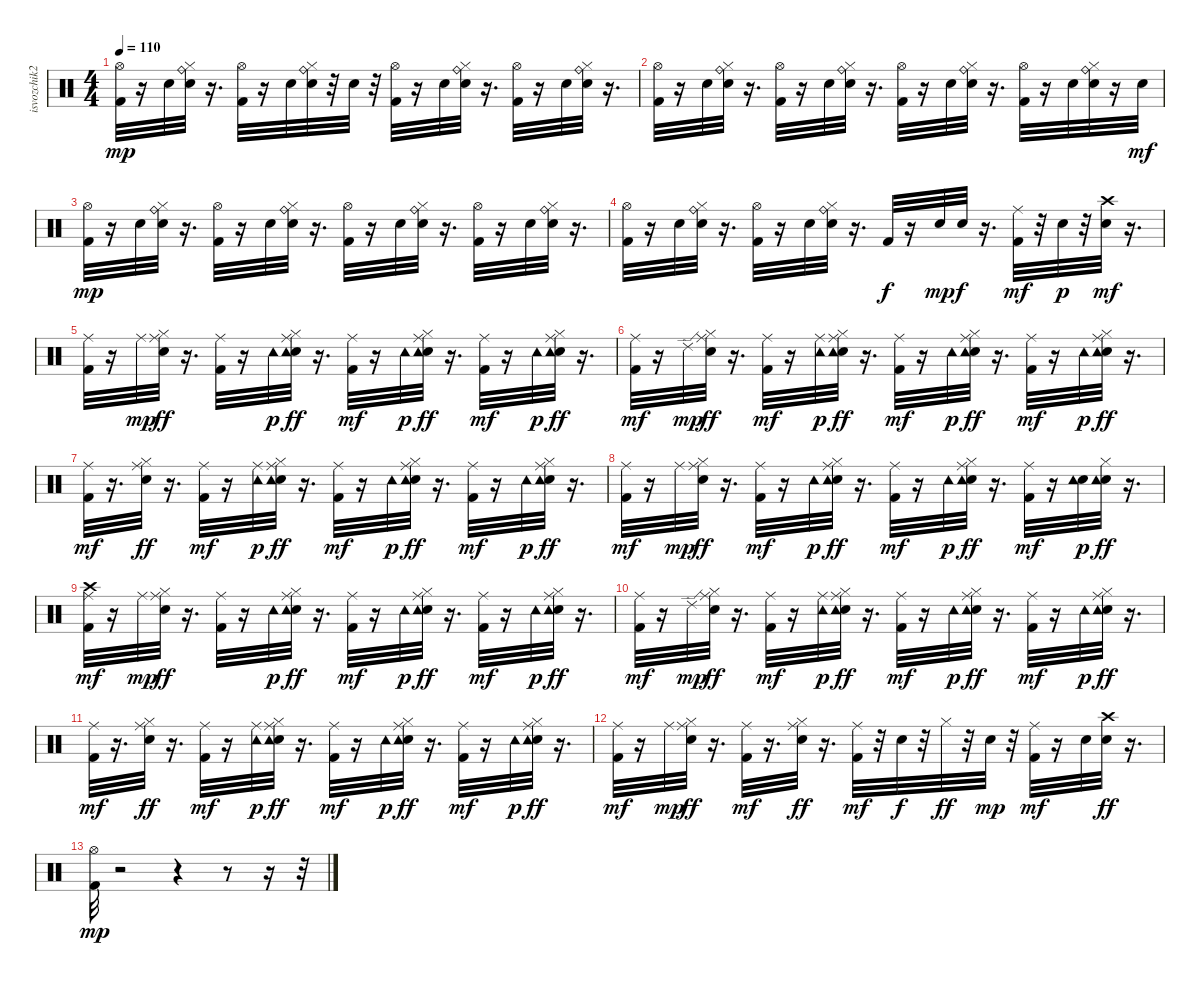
\track ("isvozchik2" "isvozchik2") {instrument percussion}
\staff {score}
\articulation defaults
\ts (4 4)
\tempo 110
\clef neutral
\ks c
("Kick (hit) 2" "Hi-Hat (open)").32{dy mp} r.16 "Snare (hit) 2".32 ("Hand Clap (hit)" "Hi-Hat (closed)" "Ride (bell)").32 r.16{d} ("Kick (hit) 2" "Hi-Hat (open)").32 r.16 "Snare (hit) 2".32 ("Hand Clap (hit)" "Hi-Hat (closed)" "Ride (bell)").32 r.32 "Snare (hit) 2".32 r.32 ("Kick (hit) 2" "Hi-Hat (open)").32 r.16 "Snare (hit) 2".32 ("Hand Clap (hit)" "Hi-Hat (closed)" "Ride (bell)").32 r.16{d} ("Kick (hit) 2" "Hi-Hat (open)").32 r.16 "Snare (hit) 2".32 ("Hand Clap (hit)" "Hi-Hat (closed)" "Ride (bell)").32 r.16{d} |
("Kick (hit) 2" "Hi-Hat (open)").32 r.16 "Snare (hit) 2".32 ("Hand Clap (hit)" "Hi-Hat (closed)" "Ride (bell)").32 r.16{d} ("Kick (hit) 2" "Hi-Hat (open)").32 r.16 "Snare (hit) 2".32 ("Hand Clap (hit)" "Hi-Hat (closed)" "Ride (bell)").32 r.16{d} ("Kick (hit) 2" "Hi-Hat (open)").32 r.16 "Snare (hit) 2".32 ("Hand Clap (hit)" "Hi-Hat (closed)" "Ride (bell)").32 r.16{d} ("Kick (hit) 2" "Hi-Hat (open)").32 r.16 "Snare (hit) 2".32 ("Hand Clap (hit)" "Hi-Hat (closed)" "Ride (bell)").32 r.16 "Hand Clap (hit)".32{dy mf} |
("Kick (hit) 2" "Hi-Hat (open)").32{dy mp} r.16 "Snare (hit) 2".32 ("Hand Clap (hit)" "Hi-Hat (closed)" "Ride (bell)").32 r.16{d} ("Kick (hit) 2" "Hi-Hat (open)").32 r.16 "Snare (hit) 2".32 ("Hand Clap (hit)" "Hi-Hat (closed)" "Ride (bell)").32 r.16{d} ("Kick (hit) 2" "Hi-Hat (open)").32 r.16 "Snare (hit) 2".32 ("Hand Clap (hit)" "Hi-Hat (closed)" "Ride (bell)").32 r.16{d} ("Kick (hit) 2" "Hi-Hat (open)").32 r.16 "Snare (hit) 2".32 ("Hand Clap (hit)" "Hi-Hat (closed)" "Ride (bell)").32 r.16{d} |
("Kick (hit) 2" "Hi-Hat (open)").32 r.16 "Snare (hit) 2".32 ("Hand Clap (hit)" "Hi-Hat (closed)" "Ride (bell)").32 r.16{d} ("Kick (hit) 2" "Hi-Hat (open)").32 r.16 "Snare (hit) 2".32 ("Hand Clap (hit)" "Hi-Hat (closed)" "Ride (bell)").32 r.16{d} "Kick (hit) 2".32{dy f} r.16 "Snare (hit) 2".32{dy mp} "Snare (hit) 2".32{dy f} r.16{d} ("Kick (hit) 2" "Ride (middle)").32{dy mf} r.32 "Snare (hit) 2".32{dy p} r.32 ("Snare (hit) 2" "Crash high (hit)").32{dy mf} r.16{d} |
("Kick (hit) 2" "Ride (middle)").32 r.16 "Ride (middle)".32{dy mp} ("Ride (middle)" "Snare (hit) 2" "Hi-Hat (closed)").32{dy ff} r.16{d} ("Kick (hit) 2" "Ride (middle)").32 r.16 "Tambourine (hit)".32{dy p} ("Ride (middle)" "Snare (hit) 2" "Tambourine (hit)" "Hi-Hat (closed)").32{dy ff} r.16{d} ("Kick (hit) 2" "Ride (middle)").32{dy mf} r.16 "Tambourine (hit)".32{dy p} ("Ride (middle)" "Snare (hit) 2" "Tambourine (hit)" "Hi-Hat (closed)").32{dy ff} r.16{d} ("Kick (hit) 2" "Ride (middle)").32{dy mf} r.16 "Tambourine (hit)".32{dy p} ("Ride (middle)" "Snare (hit) 2" "Tambourine (hit)" "Hi-Hat (closed)").32{dy ff} r.16{d} |
("Kick (hit) 2" "Ride (middle)").32{dy mf} r.16 "Ride (edge) 2".32{dy mp} ("Ride (middle)" "Snare (hit) 2" "Hi-Hat (closed)").32{dy ff} r.16{d} ("Kick (hit) 2" "Ride (middle)").32{dy mf} r.16 ("Ride (middle)" "Tambourine (hit)").32{dy p} ("Ride (middle)" "Snare (hit) 2" "Tambourine (hit)" "Hi-Hat (closed)").32{dy ff} r.16{d} ("Kick (hit) 2" "Ride (middle)").32{dy mf} r.16 "Tambourine (hit)".32{dy p} ("Ride (middle)" "Snare (hit) 2" "Tambourine (hit)" "Hi-Hat (closed)").32{dy ff} r.16{d} ("Kick (hit) 2" "Ride (middle)").32{dy mf} r.16 "Tambourine (hit)".32{dy p} ("Ride (middle)" "Snare (hit) 2" "Tambourine (hit)" "Hi-Hat (closed)").32{dy ff} r.16{d} |
("Kick (hit) 2" "Ride (middle)").32{dy mf} r.16{d} ("Ride (middle)" "Snare (hit) 2" "Hi-Hat (closed)").32{dy ff} r.16{d} ("Kick (hit) 2" "Ride (middle)").32{dy mf} r.16 ("Ride (middle)" "Tambourine (hit)").32{dy p} ("Ride (middle)" "Snare (hit) 2" "Tambourine (hit)" "Hi-Hat (closed)").32{dy ff} r.16{d} ("Kick (hit) 2" "Ride (middle)").32{dy mf} r.16 "Tambourine (hit)".32{dy p} ("Ride (middle)" "Snare (hit) 2" "Tambourine (hit)" "Hi-Hat (closed)").32{dy ff} r.16{d} ("Kick (hit) 2" "Ride (middle)").32{dy mf} r.16 "Tambourine (hit)".32{dy p} ("Ride (middle)" "Snare (hit) 2" "Tambourine (hit)" "Hi-Hat (closed)").32{dy ff} r.16{d} |
("Kick (hit) 2" "Ride (middle)").32{dy mf} r.16 "Ride (middle)".32{dy mp} ("Ride (middle)" "Snare (hit) 2" "Hi-Hat (closed)").32{dy ff} r.16{d} ("Kick (hit) 2" "Ride (middle)").32{dy mf} r.16 "Tambourine (hit)".32{dy p} ("Ride (middle)" "Snare (hit) 2" "Tambourine (hit)" "Hi-Hat (closed)").32{dy ff} r.16{d} ("Kick (hit) 2" "Ride (middle)").32{dy mf} r.16 "Tambourine (hit)".32{dy p} ("Ride (middle)" "Snare (hit) 2" "Tambourine (hit)" "Hi-Hat (closed)").32{dy ff} r.16{d} ("Kick (hit) 2" "Ride (middle)").32{dy mf} r.16 ("Snare (hit) 2" "Tambourine (hit)").32{dy p} ("Snare (hit) 2" "Tambourine (hit)" "Hi-Hat (closed)").32{dy ff} r.16{d} |
("Crash high (hit)" "Kick (hit) 2" "Ride (middle)").32{dy mf} r.16 "Ride (middle)".32{dy mp} ("Ride (middle)" "Snare (hit) 2" "Hi-Hat (closed)").32{dy ff} r.16{d} ("Kick (hit) 2" "Ride (middle)").32 r.16 "Tambourine (hit)".32{dy p} ("Ride (middle)" "Snare (hit) 2" "Tambourine (hit)" "Hi-Hat (closed)").32{dy ff} r.16{d} ("Kick (hit) 2" "Ride (middle)").32{dy mf} r.16 "Tambourine (hit)".32{dy p} ("Ride (middle)" "Snare (hit) 2" "Tambourine (hit)" "Hi-Hat (closed)").32{dy ff} r.16{d} ("Kick (hit) 2" "Ride (middle)").32{dy mf} r.16 "Tambourine (hit)".32{dy p} ("Ride (middle)" "Snare (hit) 2" "Tambourine (hit)" "Hi-Hat (closed)").32{dy ff} r.16{d} |
("Kick (hit) 2" "Ride (middle)").32{dy mf} r.16 "Ride (edge) 2".32{dy mp} ("Ride (middle)" "Snare (hit) 2" "Hi-Hat (closed)").32{dy ff} r.16{d} ("Kick (hit) 2" "Ride (middle)").32{dy mf} r.16 ("Ride (middle)" "Tambourine (hit)").32{dy p} ("Ride (middle)" "Snare (hit) 2" "Tambourine (hit)" "Hi-Hat (closed)").32{dy ff} r.16{d} ("Kick (hit) 2" "Ride (middle)").32{dy mf} r.16 "Tambourine (hit)".32{dy p} ("Ride (middle)" "Snare (hit) 2" "Tambourine (hit)" "Hi-Hat (closed)").32{dy ff} r.16{d} ("Kick (hit) 2" "Ride (middle)").32{dy mf} r.16 "Tambourine (hit)".32{dy p} ("Ride (middle)" "Snare (hit) 2" "Tambourine (hit)" "Hi-Hat (closed)").32{dy ff} r.16{d} |
("Kick (hit) 2" "Ride (middle)").32{dy mf} r.16{d} ("Ride (middle)" "Snare (hit) 2" "Hi-Hat (closed)").32{dy ff} r.16{d} ("Kick (hit) 2" "Ride (middle)").32{dy mf} r.16 ("Ride (middle)" "Tambourine (hit)").32{dy p} ("Ride (middle)" "Snare (hit) 2" "Tambourine (hit)" "Hi-Hat (closed)").32{dy ff} r.16{d} ("Kick (hit) 2" "Ride (middle)").32{dy mf} r.16 "Tambourine (hit)".32{dy p} ("Ride (middle)" "Snare (hit) 2" "Tambourine (hit)" "Hi-Hat (closed)").32{dy ff} r.16{d} ("Kick (hit) 2" "Ride (middle)").32{dy mf} r.16 "Tambourine (hit)".32{dy p} ("Ride (middle)" "Snare (hit) 2" "Tambourine (hit)" "Hi-Hat (closed)").32{dy ff} r.16{d} |
("Kick (hit) 2" "Ride (middle)").32{dy mf} r.16 "Ride (middle)".32{dy mp} ("Ride (middle)" "Snare (hit) 2" "Hi-Hat (closed)").32{dy ff} r.16{d} ("Kick (hit) 2" "Ride (middle)").32{dy mf} r.16{d} ("Ride (middle)" "Snare (hit) 2" "Hi-Hat (closed)").32{dy ff} r.16{d} ("Kick (hit) 2" "Ride (middle)").32{dy mf} r.32 "Snare (hit) 2".32{dy f} r.32 "Hi-Hat (closed)".32{dy ff} r.32 "Snare (hit) 2".32{dy mp} r.32 ("Kick (hit) 2" "Ride (middle)").32{dy mf} r.16 "Snare (hit) 2".32 ("Snare (hit) 2" "Crash high (hit)").32{dy ff} r.16{d} |
("Kick (hit) 2" "Hi-Hat (open)").32{dy mp} r.2 r.4 r.8 r.16 r.32
